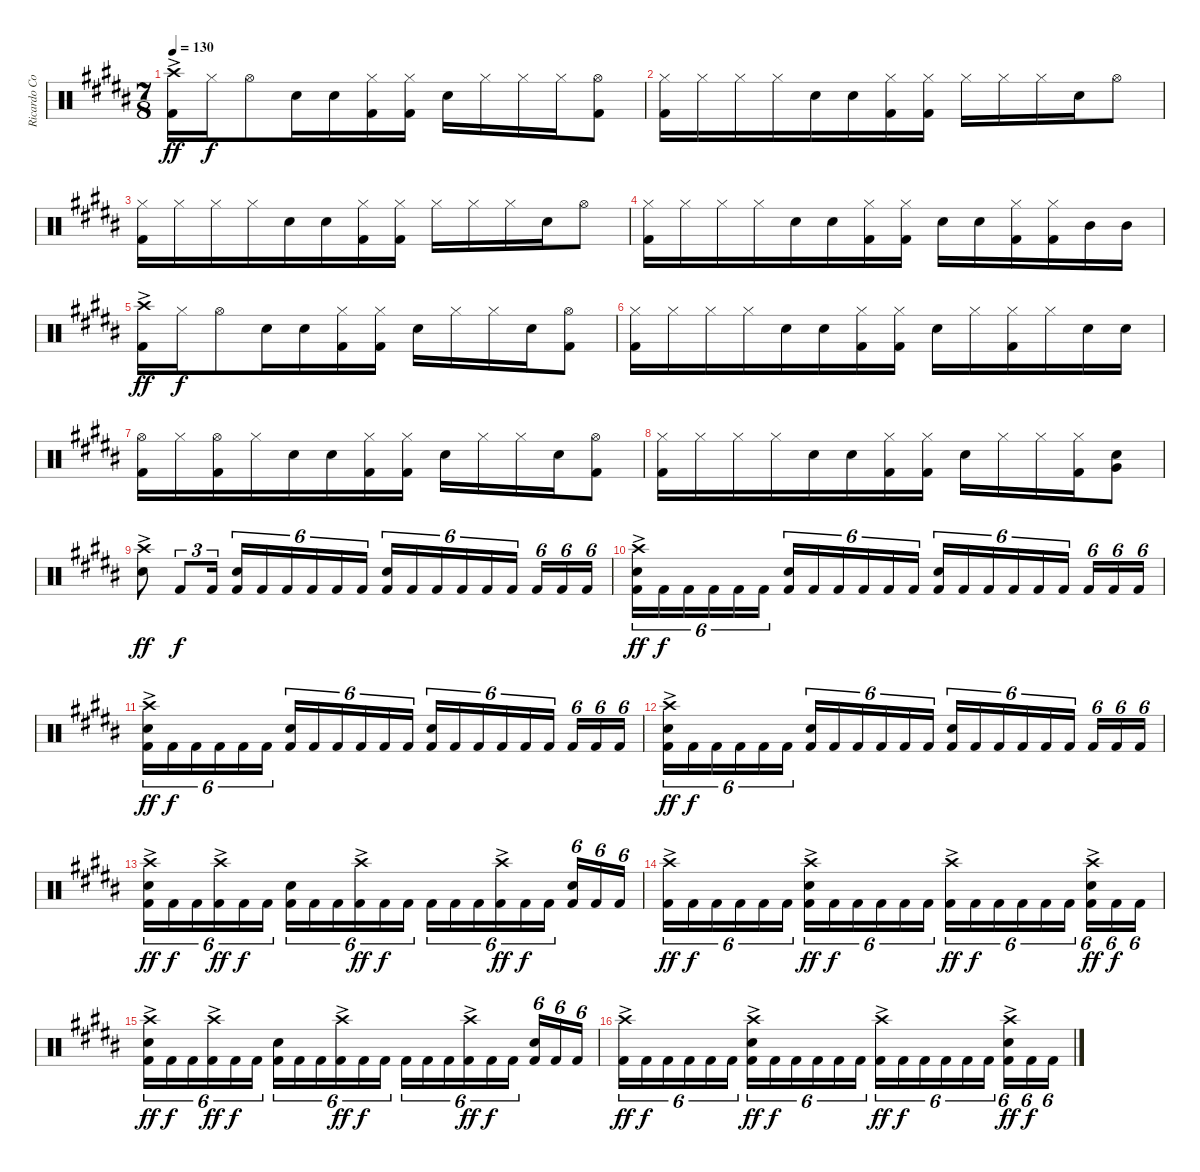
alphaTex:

\track ("Ricardo Confessori" "Ricardo Co") {instrument percussion}
\staff {score}
\articulation defaults
\ts (7 8)
\tempo 130
\clef neutral
\ks b
("Crash high (hit)"{ac} "Kick (hit) 2"{ac}).16{dy ff} "Hi-Hat (closed)".16{dy f} "Hi-Hat (open)".8 "Electric Snare (hit)".16 "Electric Snare (hit)".16 ("Hi-Hat (closed)" "Kick (hit) 2").16 ("Hi-Hat (closed)" "Kick (hit) 2").16 "Electric Snare (hit)".16 "Hi-Hat (closed)".16 "Hi-Hat (closed)".16 "Hi-Hat (closed)".16 ("Hi-Hat (open)" "Kick (hit) 2").8 |
("Hi-Hat (closed)" "Kick (hit) 2").16 "Hi-Hat (closed)".16 "Hi-Hat (closed)".16 "Hi-Hat (closed)".16 "Electric Snare (hit)".16 "Electric Snare (hit)".16 ("Hi-Hat (closed)" "Kick (hit) 2").16 ("Hi-Hat (closed)" "Kick (hit) 2").16 "Hi-Hat (closed)".16 "Hi-Hat (closed)".16 "Hi-Hat (closed)".16 "Electric Snare (hit)".16 "Hi-Hat (open)".8 |
("Hi-Hat (closed)" "Kick (hit) 2").16 "Hi-Hat (closed)".16 "Hi-Hat (closed)".16 "Hi-Hat (closed)".16 "Electric Snare (hit)".16 "Electric Snare (hit)".16 ("Hi-Hat (closed)" "Kick (hit) 2").16 ("Hi-Hat (closed)" "Kick (hit) 2").16 "Hi-Hat (closed)".16 "Hi-Hat (closed)".16 "Hi-Hat (closed)".16 "Electric Snare (hit)".16 "Hi-Hat (open)".8 |
("Hi-Hat (closed)" "Kick (hit) 2").16 "Hi-Hat (closed)".16 "Hi-Hat (closed)".16 "Hi-Hat (closed)".16 "Electric Snare (hit)".16 "Electric Snare (hit)".16 ("Hi-Hat (closed)" "Kick (hit) 2").16 ("Hi-Hat (closed)" "Kick (hit) 2").16 "Electric Snare (hit)".16 "Electric Snare (hit)".16 ("Hi-Hat (closed)" "Kick (hit) 2").16 ("Kick (hit) 2" "Hi-Hat (closed)").16 "Mid Tom (hit)".16 "Mid Tom (hit)".16 |
("Crash high (hit)"{ac} "Kick (hit) 2"{ac}).16{dy ff} "Hi-Hat (closed)".16{dy f} "Hi-Hat (open)".8 "Electric Snare (hit)".16 "Electric Snare (hit)".16 ("Hi-Hat (closed)" "Kick (hit) 2").16 ("Hi-Hat (closed)" "Kick (hit) 2").16 "Electric Snare (hit)".16 "Hi-Hat (closed)".16 "Hi-Hat (closed)".16 "Electric Snare (hit)".16 ("Hi-Hat (open)" "Kick (hit) 2").8 |
("Hi-Hat (closed)" "Kick (hit) 2").16 "Hi-Hat (closed)".16 "Hi-Hat (closed)".16 "Hi-Hat (closed)".16 "Electric Snare (hit)".16 "Electric Snare (hit)".16 ("Hi-Hat (closed)" "Kick (hit) 2").16 ("Hi-Hat (closed)" "Kick (hit) 2").16 "Electric Snare (hit)".16 "Hi-Hat (closed)".16 ("Hi-Hat (closed)" "Kick (hit) 2").16 "Hi-Hat (closed)".16 "Electric Snare (hit)".16 "Electric Snare (hit)".16 |
("Hi-Hat (open)" "Kick (hit) 2").16 "Hi-Hat (closed)".16 ("Hi-Hat (open)" "Kick (hit) 2").16 "Hi-Hat (closed)".16 "Electric Snare (hit)".16 "Electric Snare (hit)".16 ("Hi-Hat (closed)" "Kick (hit) 2").16 ("Hi-Hat (closed)" "Kick (hit) 2").16 "Electric Snare (hit)".16 "Hi-Hat (closed)".16 "Hi-Hat (closed)".16 "Electric Snare (hit)".16 ("Kick (hit) 2" "Hi-Hat (open)").8 |
("Hi-Hat (closed)" "Kick (hit) 2").16 "Hi-Hat (closed)".16 "Hi-Hat (closed)".16 "Hi-Hat (closed)".16 "Electric Snare (hit)".16 "Electric Snare (hit)".16 ("Hi-Hat (closed)" "Kick (hit) 2").16 ("Hi-Hat (closed)" "Kick (hit) 2").16 "Electric Snare (hit)".16 "Hi-Hat (closed)".16 "Hi-Hat (closed)".16 ("Kick (hit) 2" "Hi-Hat (closed)").16 ("Electric Snare (hit)" "Very Low Tom (hit)").8 |
("Crash high (hit)"{ac} "Electric Snare (hit)"{ac}).8{dy ff} "Kick (hit) 2".8{tu (3 2) dy f} "Kick (hit) 2".16{tu (3 2)} ("Electric Snare (hit)" "Kick (hit) 2").16{tu (6 4)} "Kick (hit) 2".16{tu (6 4)} "Kick (hit) 2".16{tu (6 4)} "Kick (hit) 2".16{tu (6 4)} "Kick (hit) 2".16{tu (6 4)} "Kick (hit) 2".16{tu (6 4)} ("Electric Snare (hit)" "Kick (hit) 2").16{tu (6 4)} "Kick (hit) 2".16{tu (6 4)} "Kick (hit) 2".16{tu (6 4)} "Kick (hit) 2".16{tu (6 4)} "Kick (hit) 2".16{tu (6 4)} "Kick (hit) 2".16{tu (6 4)} "Kick (hit) 2".16{tu (6 4)} "Kick (hit) 2".16{tu (6 4)} "Kick (hit) 2".16{tu (6 4)} |
("Electric Snare (hit)"{ac} "Kick (hit) 2"{ac} "Crash high (hit)"{ac}).16{tu (6 4) dy ff} "Kick (hit) 2".16{tu (6 4) dy f} "Kick (hit) 2".16{tu (6 4)} "Kick (hit) 2".16{tu (6 4)} "Kick (hit) 2".16{tu (6 4)} "Kick (hit) 2".16{tu (6 4)} ("Electric Snare (hit)" "Kick (hit) 2").16{tu (6 4)} "Kick (hit) 2".16{tu (6 4)} "Kick (hit) 2".16{tu (6 4)} "Kick (hit) 2".16{tu (6 4)} "Kick (hit) 2".16{tu (6 4)} "Kick (hit) 2".16{tu (6 4)} ("Electric Snare (hit)" "Kick (hit) 2").16{tu (6 4)} "Kick (hit) 2".16{tu (6 4)} "Kick (hit) 2".16{tu (6 4)} "Kick (hit) 2".16{tu (6 4)} "Kick (hit) 2".16{tu (6 4)} "Kick (hit) 2".16{tu (6 4)} "Kick (hit) 2".16{tu (6 4)} "Kick (hit) 2".16{tu (6 4)} "Kick (hit) 2".16{tu (6 4)} |
("Electric Snare (hit)"{ac} "Kick (hit) 2"{ac} "Crash high (hit)"{ac}).16{tu (6 4) dy ff} "Kick (hit) 2".16{tu (6 4) dy f} "Kick (hit) 2".16{tu (6 4)} "Kick (hit) 2".16{tu (6 4)} "Kick (hit) 2".16{tu (6 4)} "Kick (hit) 2".16{tu (6 4)} ("Electric Snare (hit)" "Kick (hit) 2").16{tu (6 4)} "Kick (hit) 2".16{tu (6 4)} "Kick (hit) 2".16{tu (6 4)} "Kick (hit) 2".16{tu (6 4)} "Kick (hit) 2".16{tu (6 4)} "Kick (hit) 2".16{tu (6 4)} ("Electric Snare (hit)" "Kick (hit) 2").16{tu (6 4)} "Kick (hit) 2".16{tu (6 4)} "Kick (hit) 2".16{tu (6 4)} "Kick (hit) 2".16{tu (6 4)} "Kick (hit) 2".16{tu (6 4)} "Kick (hit) 2".16{tu (6 4)} "Kick (hit) 2".16{tu (6 4)} "Kick (hit) 2".16{tu (6 4)} "Kick (hit) 2".16{tu (6 4)} |
("Electric Snare (hit)"{ac} "Kick (hit) 2"{ac} "Crash high (hit)"{ac}).16{tu (6 4) dy ff} "Kick (hit) 2".16{tu (6 4) dy f} "Kick (hit) 2".16{tu (6 4)} "Kick (hit) 2".16{tu (6 4)} "Kick (hit) 2".16{tu (6 4)} "Kick (hit) 2".16{tu (6 4)} ("Electric Snare (hit)" "Kick (hit) 2").16{tu (6 4)} "Kick (hit) 2".16{tu (6 4)} "Kick (hit) 2".16{tu (6 4)} "Kick (hit) 2".16{tu (6 4)} "Kick (hit) 2".16{tu (6 4)} "Kick (hit) 2".16{tu (6 4)} ("Electric Snare (hit)" "Kick (hit) 2").16{tu (6 4)} "Kick (hit) 2".16{tu (6 4)} "Kick (hit) 2".16{tu (6 4)} "Kick (hit) 2".16{tu (6 4)} "Kick (hit) 2".16{tu (6 4)} "Kick (hit) 2".16{tu (6 4)} "Kick (hit) 2".16{tu (6 4)} "Kick (hit) 2".16{tu (6 4)} "Kick (hit) 2".16{tu (6 4)} |
("Electric Snare (hit)"{ac} "Kick (hit) 2"{ac} "Crash high (hit)"{ac}).16{tu (6 4) dy ff} "Kick (hit) 2".16{tu (6 4) dy f} "Kick (hit) 2".16{tu (6 4)} ("Crash high (hit)"{ac} "Kick (hit) 2").16{tu (6 4) dy ff} "Kick (hit) 2".16{tu (6 4) dy f} "Kick (hit) 2".16{tu (6 4)} ("Electric Snare (hit)" "Kick (hit) 2").16{tu (6 4)} "Kick (hit) 2".16{tu (6 4)} "Kick (hit) 2".16{tu (6 4)} ("Crash high (hit)"{ac} "Kick (hit) 2").16{tu (6 4) dy ff} "Kick (hit) 2".16{tu (6 4) dy f} "Kick (hit) 2".16{tu (6 4)} "Kick (hit) 2".16{tu (6 4)} "Kick (hit) 2".16{tu (6 4)} "Kick (hit) 2".16{tu (6 4)} ("Crash high (hit)"{ac} "Kick (hit) 2").16{tu (6 4) dy ff} "Kick (hit) 2".16{tu (6 4) dy f} "Kick (hit) 2".16{tu (6 4)} ("Electric Snare (hit)" "Kick (hit) 2").16{tu (6 4)} "Kick (hit) 2".16{tu (6 4)} "Kick (hit) 2".16{tu (6 4)} |
("Kick (hit) 2"{ac} "Crash high (hit)"{ac}).16{tu (6 4) dy ff} "Kick (hit) 2".16{tu (6 4) dy f} "Kick (hit) 2".16{tu (6 4)} "Kick (hit) 2".16{tu (6 4)} "Kick (hit) 2".16{tu (6 4)} "Kick (hit) 2".16{tu (6 4)} ("Electric Snare (hit)"{ac} "Kick (hit) 2"{ac} "Crash high (hit)"{ac}).16{tu (6 4) dy ff} "Kick (hit) 2".16{tu (6 4) dy f} "Kick (hit) 2".16{tu (6 4)} "Kick (hit) 2".16{tu (6 4)} "Kick (hit) 2".16{tu (6 4)} "Kick (hit) 2".16{tu (6 4)} ("Crash high (hit)"{ac} "Kick (hit) 2"{ac}).16{tu (6 4) dy ff} "Kick (hit) 2".16{tu (6 4) dy f} "Kick (hit) 2".16{tu (6 4)} "Kick (hit) 2".16{tu (6 4)} "Kick (hit) 2".16{tu (6 4)} "Kick (hit) 2".16{tu (6 4)} ("Crash high (hit)"{ac} "Kick (hit) 2"{ac} "Electric Snare (hit)"{ac}).16{tu (6 4) dy ff} "Kick (hit) 2".16{tu (6 4) dy f} "Kick (hit) 2".16{tu (6 4)} |
("Electric Snare (hit)"{ac} "Kick (hit) 2"{ac} "Crash high (hit)"{ac}).16{tu (6 4) dy ff} "Kick (hit) 2".16{tu (6 4) dy f} "Kick (hit) 2".16{tu (6 4)} ("Crash high (hit)"{ac} "Kick (hit) 2").16{tu (6 4) dy ff} "Kick (hit) 2".16{tu (6 4) dy f} "Kick (hit) 2".16{tu (6 4)} ("Electric Snare (hit)" "Kick (hit) 2").16{tu (6 4)} "Kick (hit) 2".16{tu (6 4)} "Kick (hit) 2".16{tu (6 4)} ("Crash high (hit)"{ac} "Kick (hit) 2").16{tu (6 4) dy ff} "Kick (hit) 2".16{tu (6 4) dy f} "Kick (hit) 2".16{tu (6 4)} "Kick (hit) 2".16{tu (6 4)} "Kick (hit) 2".16{tu (6 4)} "Kick (hit) 2".16{tu (6 4)} ("Crash high (hit)"{ac} "Kick (hit) 2").16{tu (6 4) dy ff} "Kick (hit) 2".16{tu (6 4) dy f} "Kick (hit) 2".16{tu (6 4)} ("Electric Snare (hit)" "Kick (hit) 2").16{tu (6 4)} "Kick (hit) 2".16{tu (6 4)} "Kick (hit) 2".16{tu (6 4)} |
("Kick (hit) 2"{ac} "Crash high (hit)"{ac}).16{tu (6 4) dy ff} "Kick (hit) 2".16{tu (6 4) dy f} "Kick (hit) 2".16{tu (6 4)} "Kick (hit) 2".16{tu (6 4)} "Kick (hit) 2".16{tu (6 4)} "Kick (hit) 2".16{tu (6 4)} ("Electric Snare (hit)"{ac} "Kick (hit) 2"{ac} "Crash high (hit)"{ac}).16{tu (6 4) dy ff} "Kick (hit) 2".16{tu (6 4) dy f} "Kick (hit) 2".16{tu (6 4)} "Kick (hit) 2".16{tu (6 4)} "Kick (hit) 2".16{tu (6 4)} "Kick (hit) 2".16{tu (6 4)} ("Crash high (hit)"{ac} "Kick (hit) 2"{ac}).16{tu (6 4) dy ff} "Kick (hit) 2".16{tu (6 4) dy f} "Kick (hit) 2".16{tu (6 4)} "Kick (hit) 2".16{tu (6 4)} "Kick (hit) 2".16{tu (6 4)} "Kick (hit) 2".16{tu (6 4)} ("Crash high (hit)"{ac} "Kick (hit) 2"{ac} "Electric Snare (hit)"{ac}).16{tu (6 4) dy ff} "Kick (hit) 2".16{tu (6 4) dy f} "Kick (hit) 2".16{tu (6 4)}
